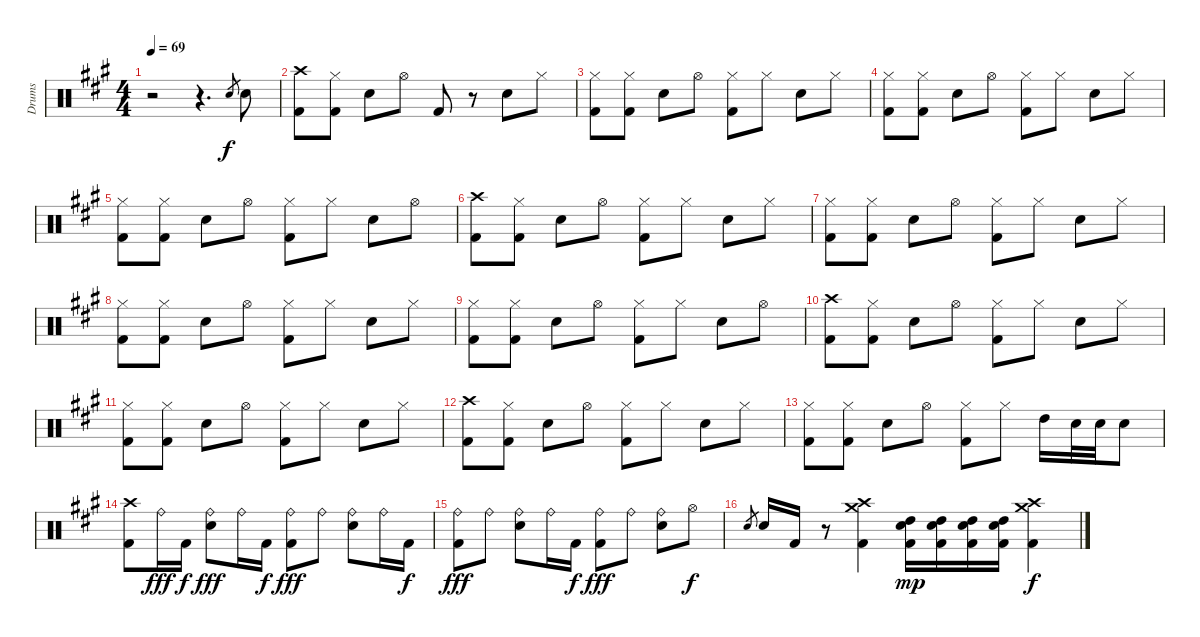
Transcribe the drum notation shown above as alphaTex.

\track ("Drums" "Drums") {instrument percussion}
\staff {score}
\articulation defaults
\ts (4 4)
\tempo 69
\clef neutral
\ks f#minor
r.2{dy f} r.4{d} "Snare (hit) 2".8{gr} "Snare (hit) 2".8 |
("Crash high (hit)" "Kick (hit) 2").8 ("Hi-Hat (closed)" "Kick (hit) 2").8 "Snare (hit) 2".8 "Hi-Hat (open)".8 "Kick (hit) 2".8 r.8 "Snare (hit) 2".8 "Hi-Hat (closed)".8 |
("Hi-Hat (closed)" "Kick (hit) 2").8 ("Hi-Hat (closed)" "Kick (hit) 2").8 "Snare (hit) 2".8 "Hi-Hat (open)".8 ("Hi-Hat (closed)" "Kick (hit) 2").8 "Hi-Hat (closed)".8 "Snare (hit) 2".8 "Hi-Hat (closed)".8 |
("Hi-Hat (closed)" "Kick (hit) 2").8 ("Hi-Hat (closed)" "Kick (hit) 2").8 "Snare (hit) 2".8 "Hi-Hat (open)".8 ("Hi-Hat (closed)" "Kick (hit) 2").8 "Hi-Hat (closed)".8 "Snare (hit) 2".8 "Hi-Hat (closed)".8 |
("Hi-Hat (closed)" "Kick (hit) 2").8 ("Hi-Hat (closed)" "Kick (hit) 2").8 "Snare (hit) 2".8 "Hi-Hat (open)".8 ("Hi-Hat (closed)" "Kick (hit) 2").8 "Hi-Hat (closed)".8 "Snare (hit) 2".8 "Hi-Hat (open)".8 |
("Crash high (hit)" "Kick (hit) 2").8 ("Hi-Hat (closed)" "Kick (hit) 2").8 "Snare (hit) 2".8 "Hi-Hat (open)".8 ("Hi-Hat (closed)" "Kick (hit) 2").8 "Hi-Hat (closed)".8 "Snare (hit) 2".8 "Hi-Hat (closed)".8 |
("Hi-Hat (closed)" "Kick (hit) 2").8 ("Hi-Hat (closed)" "Kick (hit) 2").8 "Snare (hit) 2".8 "Hi-Hat (open)".8 ("Hi-Hat (closed)" "Kick (hit) 2").8 "Hi-Hat (closed)".8 "Snare (hit) 2".8 "Hi-Hat (closed)".8 |
("Hi-Hat (closed)" "Kick (hit) 2").8 ("Hi-Hat (closed)" "Kick (hit) 2").8 "Snare (hit) 2".8 "Hi-Hat (open)".8 ("Hi-Hat (closed)" "Kick (hit) 2").8 "Hi-Hat (closed)".8 "Snare (hit) 2".8 "Hi-Hat (closed)".8 |
("Hi-Hat (closed)" "Kick (hit) 2").8 ("Hi-Hat (closed)" "Kick (hit) 2").8 "Snare (hit) 2".8 "Hi-Hat (open)".8 ("Hi-Hat (closed)" "Kick (hit) 2").8 "Hi-Hat (closed)".8 "Snare (hit) 2".8 "Hi-Hat (open)".8 |
("Crash high (hit)" "Kick (hit) 2").8 ("Hi-Hat (closed)" "Kick (hit) 2").8 "Snare (hit) 2".8 "Hi-Hat (open)".8 ("Hi-Hat (closed)" "Kick (hit) 2").8 "Hi-Hat (closed)".8 "Snare (hit) 2".8 "Hi-Hat (closed)".8 |
("Hi-Hat (closed)" "Kick (hit) 2").8 ("Hi-Hat (closed)" "Kick (hit) 2").8 "Snare (hit) 2".8 "Hi-Hat (open)".8 ("Hi-Hat (closed)" "Kick (hit) 2").8 "Hi-Hat (closed)".8 "Snare (hit) 2".8 "Hi-Hat (closed)".8 |
("Crash high (hit)" "Kick (hit) 2").8 ("Hi-Hat (closed)" "Kick (hit) 2").8 "Snare (hit) 2".8 "Hi-Hat (open)".8 ("Hi-Hat (closed)" "Kick (hit) 2").8 "Hi-Hat (closed)".8 "Snare (hit) 2".8 "Hi-Hat (closed)".8 |
("Hi-Hat (closed)" "Kick (hit) 2").8 ("Hi-Hat (closed)" "Kick (hit) 2").8 "Snare (hit) 2".8 "Hi-Hat (open)".8 ("Hi-Hat (closed)" "Kick (hit) 2").8 "Hi-Hat (closed)".8 "High Tom (hit)".16 "Snare (hit) 2".32 "Snare (hit) 2".32 "Snare (hit) 2".8 |
("Crash high (hit)" "Kick (hit) 2").8 "Ride (bell)".16{dy fff} "Kick (hit) 2".16{dy f} ("Ride (bell)" "Snare (hit) 2").8{dy fff} "Ride (bell)".16 "Kick (hit) 2".16{dy f} ("Ride (bell)" "Kick (hit) 2").8{dy fff} "Ride (bell)".8 ("Ride (bell)" "Snare (hit) 2").8 "Ride (bell)".16 "Kick (hit) 2".16{dy f} |
("Ride (bell)" "Kick (hit) 2").8{dy fff} "Ride (bell)".8 ("Ride (bell)" "Snare (hit) 2").8 "Ride (bell)".16 "Kick (hit) 2".16{dy f} ("Ride (bell)" "Kick (hit) 2").8{dy fff} "Ride (bell)".8 ("Ride (bell)" "Snare (hit) 2").8 "Hi-Hat (open)".8{dy f} |
"Snare (hit) 2".8{gr} "Snare (hit) 2".16 "Kick (hit) 2".16 r.8 ("Crash high (hit)" "Crash medium (hit)" "Kick (hit) 2").4 ("High Tom (hit)" "Snare (hit) 2" "Kick (hit) 2").16{dy mp} ("High Tom (hit)" "Snare (hit) 2" "Kick (hit) 2").16 ("High Tom (hit)" "Snare (hit) 2" "Kick (hit) 2").16 ("High Tom (hit)" "Snare (hit) 2" "Kick (hit) 2").16 ("Crash high (hit)" "Crash medium (hit)" "Kick (hit) 2").4{dy f}
